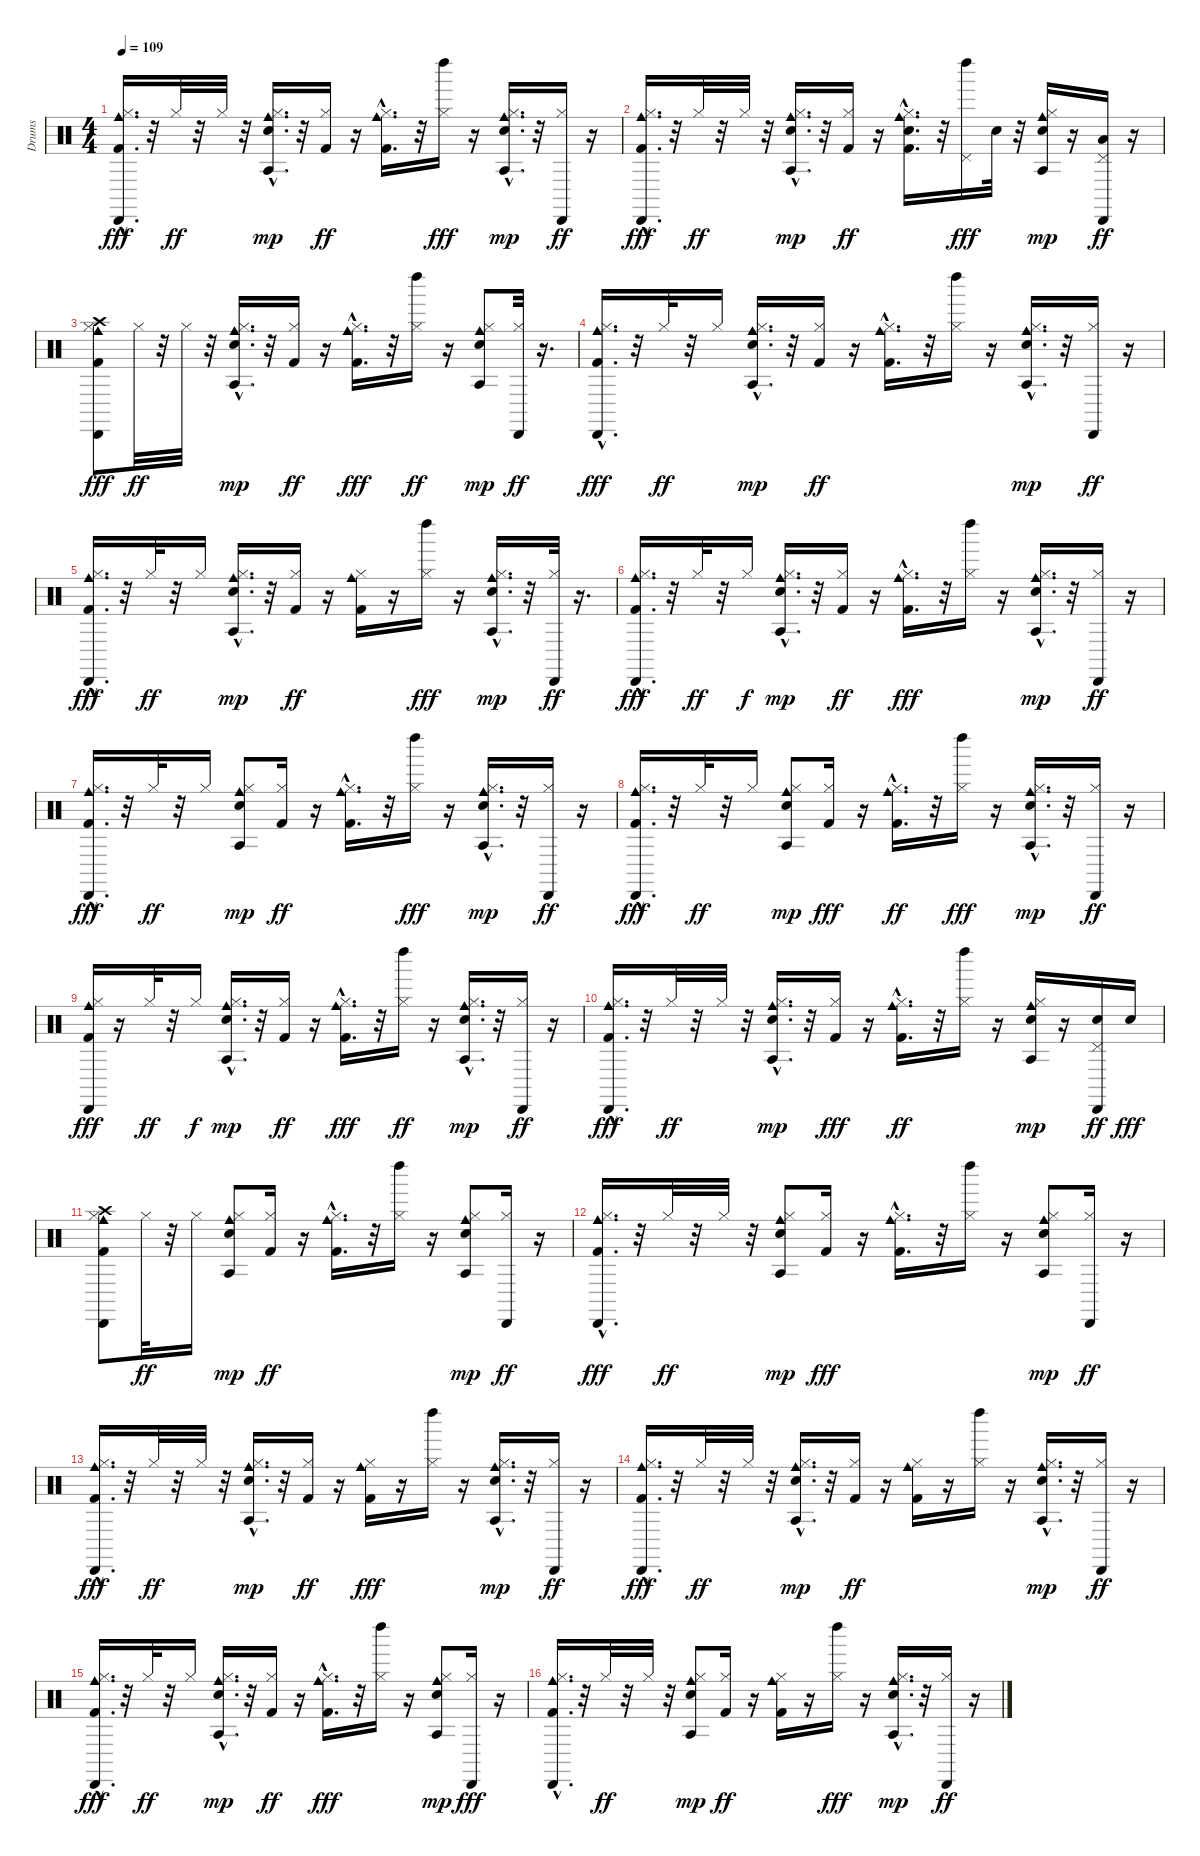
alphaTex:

\track ("Drums   " "Drums   ") {instrument percussion}
\staff {score}
\articulation defaults
\ts (4 4)
\tempo 109
\clef neutral
\ks c
("Kick (hit) 2"{hac} "Cowbell medium (hit)"{hac} "Hi-Hat (closed)"{hac} "Cabasa (hit)"{hac}).16{d dy fff} r.32 "Hi-Hat (closed)".32{dy ff} r.32 "Hi-Hat (closed)".32 r.32 ("Snare (hit) 2"{hac} "Hi-Hat (closed)"{hac} "Cowbell medium (hit)"{hac} "Agogo tow (hit)"{hac}).16{d dy mp} r.32 ("Kick (hit) 2" "Hi-Hat (closed)").16{dy ff} r.16 ("Kick (hit) 2"{hac} "Cowbell medium (hit)"{hac} "Hi-Hat (closed)"{hac}).16{d} r.32 ("Hi-Hat (closed)" "Left Maraca (hit)").16{dy fff} r.16 ("Snare (hit) 2"{hac} "Hi-Hat (closed)"{hac} "Cowbell medium (hit)"{hac} "Agogo tow (hit)"{hac}).16{d dy mp} r.32 ("Hi-Hat (closed)" "Cabasa (hit)").16{dy ff} r.16 |
("Kick (hit) 2"{hac} "Hi-Hat (closed)"{hac} "Cowbell medium (hit)"{hac} "Cabasa (hit)"{hac}).16{d dy fff} r.32 "Hi-Hat (closed)".32{dy ff} r.32 "Hi-Hat (closed)".32 r.32 ("Snare (hit) 2"{hac} "Hi-Hat (closed)"{hac} "Cowbell medium (hit)"{hac} "Agogo tow (hit)"{hac}).16{d dy mp} r.32 ("Kick (hit) 2" "Hi-Hat (closed)").16{dy ff} r.16 ("Kick (hit) 2"{hac} "Cowbell medium (hit)"{hac} "Snare (hit) 2"{hac} "Hi-Hat (closed)"{hac}).16{d} r.32 ("Pedal Hi-Hat (hit)" "Left Maraca (hit)").16{dy fff} "Snare (hit) 2".32 r.32 ("Snare (hit) 2" "Hi-Hat (closed)" "Cowbell medium (hit)" "Agogo tow (hit)").16{dy mp} r.16 ("Pedal Hi-Hat (hit)" "Low Tom (hit)" "Cabasa (hit)").16{dy ff} r.16 |
("Cowbell medium (hit)" "Kick (hit) 2" "Hi-Hat (closed)" "Cabasa (hit)" "Crash high (hit)").8{dy fff} "Hi-Hat (closed)".32{dy ff} r.32 "Hi-Hat (closed)".32 r.32 ("Snare (hit) 2"{hac} "Hi-Hat (closed)"{hac} "Cowbell medium (hit)"{hac} "Agogo tow (hit)"{hac}).16{d dy mp} r.32 ("Kick (hit) 2" "Hi-Hat (closed)").16{dy ff} r.16 ("Kick (hit) 2"{hac} "Hi-Hat (closed)"{hac} "Cowbell medium (hit)"{hac}).16{d dy fff} r.32 ("Hi-Hat (closed)" "Left Maraca (hit)").16{dy ff} r.16 ("Snare (hit) 2" "Hi-Hat (closed)" "Cowbell medium (hit)" "Agogo tow (hit)").8{dy mp} ("Hi-Hat (closed)" "Cabasa (hit)").32{dy ff} r.16{d} |
("Kick (hit) 2"{hac} "Cowbell medium (hit)"{hac} "Hi-Hat (closed)"{hac} "Cabasa (hit)"{hac}).16{d dy fff} r.32 "Hi-Hat (closed)".32{dy ff} r.32 "Hi-Hat (closed)".16 ("Cowbell medium (hit)"{hac} "Snare (hit) 2"{hac} "Hi-Hat (closed)"{hac} "Agogo tow (hit)"{hac}).16{d dy mp} r.32 ("Kick (hit) 2" "Hi-Hat (closed)").16{dy ff} r.16 ("Kick (hit) 2"{hac} "Cowbell medium (hit)"{hac} "Hi-Hat (closed)"{hac}).16{d} r.32 ("Hi-Hat (closed)" "Left Maraca (hit)").16 r.16 ("Snare (hit) 2"{hac} "Hi-Hat (closed)"{hac} "Cowbell medium (hit)"{hac} "Agogo tow (hit)"{hac}).16{d dy mp} r.32 ("Hi-Hat (closed)" "Cabasa (hit)").16{dy ff} r.16 |
("Kick (hit) 2"{hac} "Cowbell medium (hit)"{hac} "Hi-Hat (closed)"{hac} "Cabasa (hit)"{hac}).16{d dy fff} r.32 "Hi-Hat (closed)".32{dy ff} r.32 "Hi-Hat (closed)".16 ("Snare (hit) 2"{hac} "Cowbell medium (hit)"{hac} "Hi-Hat (closed)"{hac} "Agogo tow (hit)"{hac}).16{d dy mp} r.32 ("Kick (hit) 2" "Hi-Hat (closed)").16{dy ff} r.16 ("Cowbell medium (hit)" "Kick (hit) 2" "Hi-Hat (closed)").16 r.16 ("Hi-Hat (closed)" "Left Maraca (hit)").16{dy fff} r.16 ("Snare (hit) 2"{hac} "Hi-Hat (closed)"{hac} "Cowbell medium (hit)"{hac} "Agogo tow (hit)"{hac}).16{d dy mp} r.32 ("Hi-Hat (closed)" "Cabasa (hit)").32{dy ff} r.16{d} |
("Cowbell medium (hit)"{hac} "Kick (hit) 2"{hac} "Hi-Hat (closed)"{hac} "Cabasa (hit)"{hac}).16{d dy fff} r.32 "Hi-Hat (closed)".32{dy ff} r.32 "Hi-Hat (closed)".16{dy f} ("Snare (hit) 2"{hac} "Cowbell medium (hit)"{hac} "Hi-Hat (closed)"{hac} "Agogo tow (hit)"{hac}).16{d dy mp} r.32 ("Kick (hit) 2" "Hi-Hat (closed)").16{dy ff} r.16 ("Kick (hit) 2"{hac} "Hi-Hat (closed)"{hac} "Cowbell medium (hit)"{hac}).16{d dy fff} r.32 ("Hi-Hat (closed)" "Left Maraca (hit)").16 r.16 ("Snare (hit) 2"{hac} "Cowbell medium (hit)"{hac} "Hi-Hat (closed)"{hac} "Agogo tow (hit)"{hac}).16{d dy mp} r.32 ("Hi-Hat (closed)" "Cabasa (hit)").16{dy ff} r.16 |
("Kick (hit) 2"{hac} "Cowbell medium (hit)"{hac} "Hi-Hat (closed)"{hac} "Cabasa (hit)"{hac}).16{d dy fff} r.32 "Hi-Hat (closed)".32{dy ff} r.32 "Hi-Hat (closed)".16 ("Snare (hit) 2" "Hi-Hat (closed)" "Cowbell medium (hit)" "Agogo tow (hit)").8{dy mp} ("Kick (hit) 2" "Hi-Hat (closed)").16{dy ff} r.16 ("Kick (hit) 2"{hac} "Cowbell medium (hit)"{hac} "Hi-Hat (closed)"{hac}).16{d} r.32 ("Hi-Hat (closed)" "Left Maraca (hit)").16{dy fff} r.16 ("Snare (hit) 2"{hac} "Hi-Hat (closed)"{hac} "Cowbell medium (hit)"{hac} "Agogo tow (hit)"{hac}).16{d dy mp} r.32 ("Hi-Hat (closed)" "Cabasa (hit)").16{dy ff} r.16 |
("Kick (hit) 2"{hac} "Hi-Hat (closed)"{hac} "Cowbell medium (hit)"{hac} "Cabasa (hit)"{hac}).16{d dy fff} r.32 "Hi-Hat (closed)".32{dy ff} r.32 "Hi-Hat (closed)".16 ("Snare (hit) 2" "Hi-Hat (closed)" "Cowbell medium (hit)" "Agogo tow (hit)").8{dy mp} ("Kick (hit) 2" "Hi-Hat (closed)").16{dy fff} r.16 ("Kick (hit) 2"{hac} "Cowbell medium (hit)"{hac} "Hi-Hat (closed)"{hac}).16{d dy ff} r.32 ("Hi-Hat (closed)" "Left Maraca (hit)").16{dy fff} r.16 ("Snare (hit) 2"{hac} "Hi-Hat (closed)"{hac} "Cowbell medium (hit)"{hac} "Agogo tow (hit)"{hac}).16{d dy mp} r.32 ("Hi-Hat (closed)" "Cabasa (hit)").16{dy ff} r.16 |
("Cowbell medium (hit)" "Kick (hit) 2" "Hi-Hat (closed)" "Cabasa (hit)").16{dy fff} r.16 "Hi-Hat (closed)".32{dy ff} r.32 "Hi-Hat (closed)".16{dy f} ("Snare (hit) 2"{hac} "Hi-Hat (closed)"{hac} "Cowbell medium (hit)"{hac} "Agogo tow (hit)"{hac}).16{d dy mp} r.32 ("Kick (hit) 2" "Hi-Hat (closed)").16{dy ff} r.16 ("Kick (hit) 2"{hac} "Hi-Hat (closed)"{hac} "Cowbell medium (hit)"{hac}).16{d dy fff} r.32 ("Hi-Hat (closed)" "Left Maraca (hit)").16{dy ff} r.16 ("Snare (hit) 2"{hac} "Hi-Hat (closed)"{hac} "Cowbell medium (hit)"{hac} "Agogo tow (hit)"{hac}).16{d dy mp} r.32 ("Hi-Hat (closed)" "Cabasa (hit)").16{dy ff} r.16 |
("Kick (hit) 2"{hac} "Cowbell medium (hit)"{hac} "Hi-Hat (closed)"{hac} "Cabasa (hit)"{hac}).16{d dy fff} r.32 "Hi-Hat (closed)".32{dy ff} r.32 "Hi-Hat (closed)".32 r.32 ("Snare (hit) 2"{hac} "Hi-Hat (closed)"{hac} "Cowbell medium (hit)"{hac} "Agogo tow (hit)"{hac}).16{d dy mp} r.32 ("Kick (hit) 2" "Hi-Hat (closed)").16{dy fff} r.16 ("Kick (hit) 2"{hac} "Cowbell medium (hit)"{hac} "Hi-Hat (closed)"{hac}).16{d dy ff} r.32 ("Hi-Hat (closed)" "Left Maraca (hit)").16 r.16 ("Snare (hit) 2" "Hi-Hat (closed)" "Cowbell medium (hit)" "Agogo tow (hit)").16{dy mp} r.16 ("Snare (hit) 2" "Pedal Hi-Hat (hit)" "Cabasa (hit)").16{dy ff} "Snare (hit) 2".16{dy fff} |
("Kick (hit) 2" "Hi-Hat (closed)" "Cowbell medium (hit)" "Cabasa (hit)" "Crash high (hit)").8 "Hi-Hat (closed)".32{dy ff} r.32 "Hi-Hat (closed)".16 ("Snare (hit) 2" "Hi-Hat (closed)" "Cowbell medium (hit)" "Agogo tow (hit)").8{dy mp} ("Kick (hit) 2" "Hi-Hat (closed)").16{dy ff} r.16 ("Kick (hit) 2"{hac} "Cowbell medium (hit)"{hac} "Hi-Hat (closed)"{hac}).16{d} r.32 ("Hi-Hat (closed)" "Left Maraca (hit)").16 r.16 ("Cowbell medium (hit)" "Snare (hit) 2" "Hi-Hat (closed)" "Agogo tow (hit)").8{dy mp} ("Hi-Hat (closed)" "Cabasa (hit)").16{dy ff} r.16 |
("Kick (hit) 2"{hac} "Cowbell medium (hit)"{hac} "Hi-Hat (closed)"{hac} "Cabasa (hit)"{hac}).16{d dy fff} r.32 "Hi-Hat (closed)".32{dy ff} r.32 "Hi-Hat (closed)".32 r.32 ("Snare (hit) 2" "Hi-Hat (closed)" "Cowbell medium (hit)" "Agogo tow (hit)").8{dy mp} ("Kick (hit) 2" "Hi-Hat (closed)").16{dy fff} r.16 ("Kick (hit) 2"{hac} "Hi-Hat (closed)"{hac} "Cowbell medium (hit)"{hac}).16{d} r.32 ("Hi-Hat (closed)" "Left Maraca (hit)").16 r.16 ("Snare (hit) 2" "Hi-Hat (closed)" "Cowbell medium (hit)" "Agogo tow (hit)").8{dy mp} ("Hi-Hat (closed)" "Cabasa (hit)").16{dy ff} r.16 |
("Cowbell medium (hit)"{hac} "Kick (hit) 2"{hac} "Hi-Hat (closed)"{hac} "Cabasa (hit)"{hac}).16{d dy fff} r.32 "Hi-Hat (closed)".32{dy ff} r.32 "Hi-Hat (closed)".32 r.32 ("Snare (hit) 2"{hac} "Hi-Hat (closed)"{hac} "Cowbell medium (hit)"{hac} "Agogo tow (hit)"{hac}).16{d dy mp} r.32 ("Kick (hit) 2" "Hi-Hat (closed)").16{dy ff} r.16 ("Cowbell medium (hit)" "Kick (hit) 2" "Hi-Hat (closed)").16{dy fff} r.16 ("Hi-Hat (closed)" "Left Maraca (hit)").16 r.16 ("Snare (hit) 2"{hac} "Hi-Hat (closed)"{hac} "Cowbell medium (hit)"{hac} "Agogo tow (hit)"{hac}).16{d dy mp} r.32 ("Hi-Hat (closed)" "Cabasa (hit)").16{dy ff} r.16 |
("Kick (hit) 2"{hac} "Cowbell medium (hit)"{hac} "Hi-Hat (closed)"{hac} "Cabasa (hit)"{hac}).16{d dy fff} r.32 "Hi-Hat (closed)".32{dy ff} r.32 "Hi-Hat (closed)".32 r.32 ("Snare (hit) 2"{hac} "Cowbell medium (hit)"{hac} "Hi-Hat (closed)"{hac} "Agogo tow (hit)"{hac}).16{d dy mp} r.32 ("Kick (hit) 2" "Hi-Hat (closed)").16{dy ff} r.16 ("Cowbell medium (hit)" "Kick (hit) 2" "Hi-Hat (closed)").16 r.16 ("Hi-Hat (closed)" "Left Maraca (hit)").16 r.16 ("Snare (hit) 2"{hac} "Hi-Hat (closed)"{hac} "Cowbell medium (hit)"{hac} "Agogo tow (hit)"{hac}).16{d dy mp} r.32 ("Hi-Hat (closed)" "Cabasa (hit)").16{dy ff} r.16 |
("Cowbell medium (hit)"{hac} "Kick (hit) 2"{hac} "Hi-Hat (closed)"{hac} "Cabasa (hit)"{hac}).16{d dy fff} r.32 "Hi-Hat (closed)".32{dy ff} r.32 "Hi-Hat (closed)".16 ("Snare (hit) 2"{hac} "Hi-Hat (closed)"{hac} "Cowbell medium (hit)"{hac} "Agogo tow (hit)"{hac}).16{d dy mp} r.32 ("Kick (hit) 2" "Hi-Hat (closed)").16{dy ff} r.16 ("Kick (hit) 2"{hac} "Hi-Hat (closed)"{hac} "Cowbell medium (hit)"{hac}).16{d dy fff} r.32 ("Hi-Hat (closed)" "Left Maraca (hit)").16 r.16 ("Snare (hit) 2" "Hi-Hat (closed)" "Cowbell medium (hit)" "Agogo tow (hit)").8{dy mp} ("Hi-Hat (closed)" "Cabasa (hit)").16{dy fff} r.16 |
("Kick (hit) 2"{hac} "Cowbell medium (hit)"{hac} "Hi-Hat (closed)"{hac} "Cabasa (hit)"{hac}).16{d} r.32 "Hi-Hat (closed)".32{dy ff} r.32 "Hi-Hat (closed)".32 r.32 ("Snare (hit) 2" "Hi-Hat (closed)" "Cowbell medium (hit)" "Agogo tow (hit)").8{dy mp} ("Kick (hit) 2" "Hi-Hat (closed)").16{dy ff} r.16 ("Kick (hit) 2" "Cowbell medium (hit)" "Hi-Hat (closed)").16 r.16 ("Hi-Hat (closed)" "Left Maraca (hit)").16{dy fff} r.16 ("Snare (hit) 2"{hac} "Hi-Hat (closed)"{hac} "Cowbell medium (hit)"{hac} "Agogo tow (hit)"{hac}).16{d dy mp} r.32 ("Hi-Hat (closed)" "Cabasa (hit)").16{dy ff} r.16
